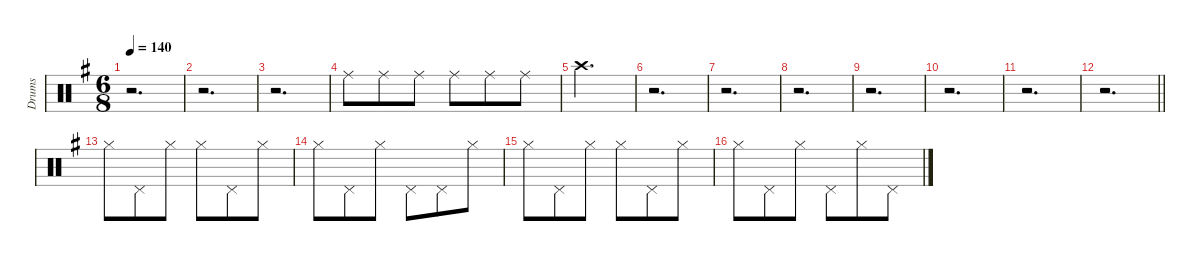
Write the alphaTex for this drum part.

\defaultSystemsLayout 8
\hideDynamics
\bracketExtendMode groupsimilarinstruments
\firstSystemTrackNameMode fullname
\otherSystemsTrackNameOrientation horizontal
\track ("Drums" "drm.") {defaultSystemsLayout 4 instrument percussion}
\staff {score}
\articulation defaults
\ts (6 8)
\tempo 140
\clef neutral
\ks g
r.2{d dy mf beam Down} |
r.2{d beam Down} |
r.2{d beam Down} |
"Ride (middle)"{acc forcenatural}.8{dy mp beam Down} "Ride (middle)"{acc forcenatural}.8{beam Down} "Ride (middle)"{acc forcenatural}.8{dy mf beam Down} "Ride (middle)"{acc forcenatural}.8{beam Down} "Ride (middle)"{acc forcenatural}.8{dy f beam Down} "Ride (middle)"{acc forcenatural}.8{beam Down} |
"Crash high (hit)"{acc forcenatural}.2{d dy ff beam Down} |
r.2{d beam Down} |
r.2{d beam Down} |
r.2{d beam Down} |
r.2{d beam Down} |
r.2{d beam Down} |
r.2{d beam Down} |
\barLineRight lightlight
r.2{d beam Down} |
"Hi-Hat (closed)"{acc forcenatural}.8{dy mp beam Down} "Pedal Hi-Hat (hit)"{acc forcenatural}.8{beam Down} "Hi-Hat (closed)"{acc forcenatural}.8{beam Down} "Hi-Hat (closed)"{acc forcenatural}.8{beam Down} "Pedal Hi-Hat (hit)"{acc forcenatural}.8{beam Down} "Hi-Hat (closed)"{acc forcenatural}.8{beam Down} |
"Hi-Hat (closed)"{acc forcenatural}.8{beam Down} "Pedal Hi-Hat (hit)"{acc forcenatural}.8{beam Down} "Hi-Hat (closed)"{acc forcenatural}.8{beam Down} "Pedal Hi-Hat (hit)"{acc forcenatural}.8{beam Down} "Pedal Hi-Hat (hit)"{acc forcenatural}.8{beam Down} "Hi-Hat (closed)"{acc forcenatural}.8{beam Down} |
"Hi-Hat (closed)"{acc forcenatural}.8{beam Down} "Pedal Hi-Hat (hit)"{acc forcenatural}.8{beam Down} "Hi-Hat (closed)"{acc forcenatural}.8{beam Down} "Hi-Hat (closed)"{acc forcenatural}.8{beam Down} "Pedal Hi-Hat (hit)"{acc forcenatural}.8{beam Down} "Hi-Hat (closed)"{acc forcenatural}.8{beam Down} |
"Hi-Hat (closed)"{acc forcenatural}.8{beam Down} "Pedal Hi-Hat (hit)"{acc forcenatural}.8{beam Down} "Hi-Hat (closed)"{acc forcenatural}.8{beam Down} "Pedal Hi-Hat (hit)"{acc forcenatural}.8{beam Down} "Hi-Hat (closed)"{acc forcenatural}.8{beam Down} "Pedal Hi-Hat (hit)"{acc forcenatural}.8{beam Down}
